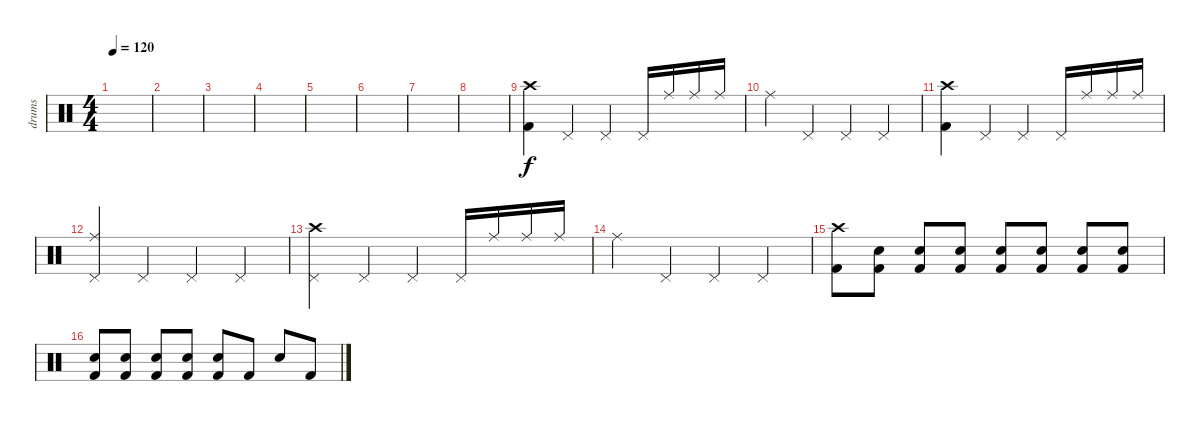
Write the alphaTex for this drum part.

\track ("drums" "drums") {instrument percussion}
\staff {score}
\articulation defaults
\ts (4 4)
\tempo 120
\clef neutral
\ks c
|
|
|
|
|
|
|
|
("Crash high (hit)" "Kick (hit) 2").4 "Pedal Hi-Hat (hit)".4 "Pedal Hi-Hat (hit)".4 "Pedal Hi-Hat (hit)".16 "Ride (middle)".16 "Ride (middle)".16 "Ride (middle)".16 |
"Ride (middle)".4 "Pedal Hi-Hat (hit)".4 "Pedal Hi-Hat (hit)".4 "Pedal Hi-Hat (hit)".4 |
("Crash high (hit)" "Kick (hit) 2").4 "Pedal Hi-Hat (hit)".4 "Pedal Hi-Hat (hit)".4 "Pedal Hi-Hat (hit)".16 "Ride (middle)".16 "Ride (middle)".16 "Ride (middle)".16 |
("Ride (middle)" "Pedal Hi-Hat (hit)").4 "Pedal Hi-Hat (hit)".4 "Pedal Hi-Hat (hit)".4 "Pedal Hi-Hat (hit)".4 |
("Crash high (hit)" "Pedal Hi-Hat (hit)").4 "Pedal Hi-Hat (hit)".4 "Pedal Hi-Hat (hit)".4 "Pedal Hi-Hat (hit)".16 "Ride (middle)".16 "Ride (middle)".16 "Ride (middle)".16 |
"Ride (middle)".4 "Pedal Hi-Hat (hit)".4 "Pedal Hi-Hat (hit)".4 "Pedal Hi-Hat (hit)".4 |
("Crash high (hit)" "Kick (hit) 2").8 ("Kick (hit) 2" "Snare (hit) 2").8 ("Kick (hit) 2" "Snare (hit) 2").8 ("Kick (hit) 2" "Snare (hit) 2").8 ("Kick (hit) 2" "Snare (hit) 2").8 ("Kick (hit) 2" "Snare (hit) 2").8 ("Kick (hit) 2" "Snare (hit) 2").8 ("Kick (hit) 2" "Snare (hit) 2").8 |
("Kick (hit) 2" "Snare (hit) 2").8 ("Kick (hit) 2" "Snare (hit) 2").8 ("Kick (hit) 2" "Snare (hit) 2").8 ("Kick (hit) 2" "Snare (hit) 2").8 ("Kick (hit) 2" "Snare (hit) 2").8 "Kick (hit) 2".8 "Snare (hit) 2".8 "Kick (hit) 2".8
